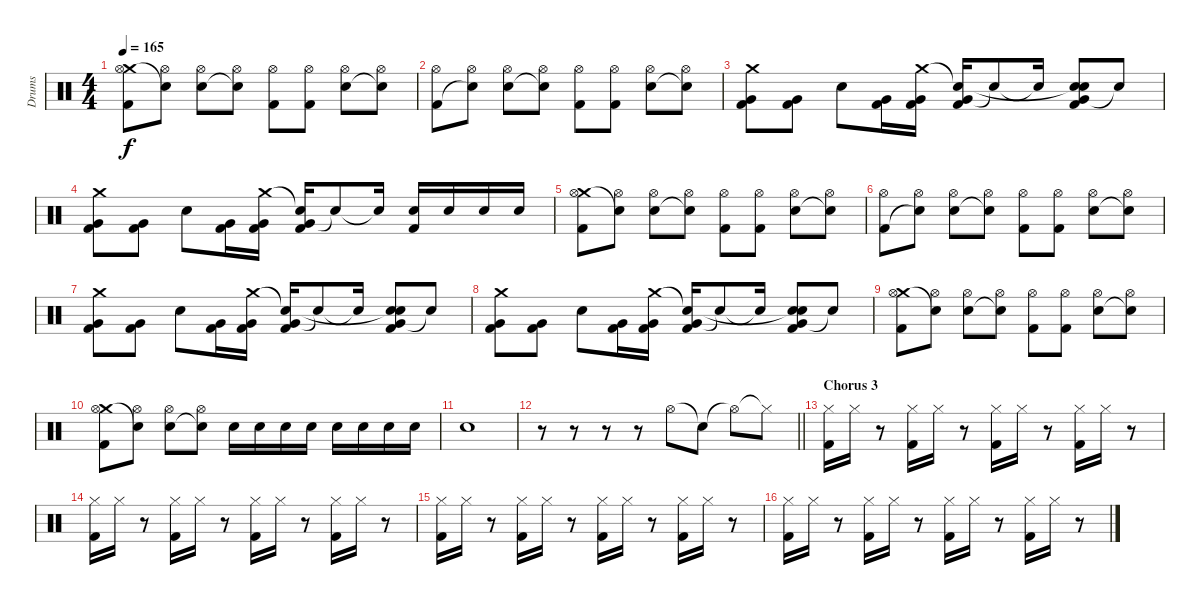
\track ("Drums" "Drums") {instrument percussion}
\staff {score}
\articulation defaults
\ts (4 4)
\tempo 165
\clef neutral
\ks c
("Crash medium (hit)" "Hi-Hat (open)" "Kick (hit) 2").8{dy f} ("Hi-Hat (open)" "Snare (hit)"{t}).8 ("Hi-Hat (open)" "Electric Snare (hit)").8 ("Hi-Hat (open)" "Snare (hit)"{t}).8 ("Hi-Hat (open)" "Kick (hit) 2").8 ("Hi-Hat (open)" "Kick (hit) 2").8 ("Hi-Hat (open)" "Electric Snare (hit)").8 ("Hi-Hat (open)" "Snare (hit)"{t}).8 |
("Hi-Hat (open)" "Kick (hit) 2").8 ("Hi-Hat (open)" "Snare (hit)"{t}).8 ("Hi-Hat (open)" "Electric Snare (hit)").8 ("Hi-Hat (open)" "Snare (hit)"{t}).8 ("Hi-Hat (open)" "Kick (hit) 2").8 ("Hi-Hat (open)" "Kick (hit) 2").8 ("Hi-Hat (open)" "Electric Snare (hit)").8 ("Hi-Hat (open)" "Snare (hit)"{t}).8 |
("Very Low Tom (hit)" "Crash medium (hit)" "Kick (hit) 2").8 ("Very Low Tom (hit)" "Kick (hit) 2").8 "Electric Snare (hit)".8 ("Very Low Tom (hit)" "Kick (hit) 2").16 ("Very Low Tom (hit)" "Crash medium (hit)" "Kick (hit) 2").16 ("Very Low Tom (hit)" "Snare (hit)"{t} "Kick (hit) 2").16 "Snare (hit)"{t}.8 "Snare (hit)"{t}.16 ("Very Low Tom (hit)" "Snare (hit)"{t} "Electric Snare (hit)" "Kick (hit) 2").8 "Snare (hit)"{t}.8 |
("Very Low Tom (hit)" "Crash medium (hit)" "Kick (hit) 2").8 ("Very Low Tom (hit)" "Kick (hit) 2").8 "Electric Snare (hit)".8 ("Very Low Tom (hit)" "Kick (hit) 2").16 ("Very Low Tom (hit)" "Crash medium (hit)" "Kick (hit) 2").16 ("Very Low Tom (hit)" "Snare (hit)"{t} "Kick (hit) 2").16 "Snare (hit)"{t}.8 "Snare (hit)"{t}.16 ("Electric Snare (hit)" "Kick (hit) 2").16 "Electric Snare (hit)".16 "Electric Snare (hit)".16 "Electric Snare (hit)".16 |
("Crash medium (hit)" "Hi-Hat (open)" "Kick (hit) 2").8 ("Hi-Hat (open)" "Snare (hit)"{t}).8 ("Hi-Hat (open)" "Electric Snare (hit)").8 ("Hi-Hat (open)" "Snare (hit)"{t}).8 ("Hi-Hat (open)" "Kick (hit) 2").8 ("Hi-Hat (open)" "Kick (hit) 2").8 ("Hi-Hat (open)" "Electric Snare (hit)").8 ("Hi-Hat (open)" "Snare (hit)"{t}).8 |
("Hi-Hat (open)" "Kick (hit) 2").8 ("Hi-Hat (open)" "Snare (hit)"{t}).8 ("Hi-Hat (open)" "Electric Snare (hit)").8 ("Hi-Hat (open)" "Snare (hit)"{t}).8 ("Hi-Hat (open)" "Kick (hit) 2").8 ("Hi-Hat (open)" "Kick (hit) 2").8 ("Hi-Hat (open)" "Electric Snare (hit)").8 ("Hi-Hat (open)" "Snare (hit)"{t}).8 |
("Very Low Tom (hit)" "Crash medium (hit)" "Kick (hit) 2").8 ("Very Low Tom (hit)" "Kick (hit) 2").8 "Electric Snare (hit)".8 ("Very Low Tom (hit)" "Kick (hit) 2").16 ("Very Low Tom (hit)" "Crash medium (hit)" "Kick (hit) 2").16 ("Very Low Tom (hit)" "Snare (hit)"{t} "Kick (hit) 2").16 "Snare (hit)"{t}.8 "Snare (hit)"{t}.16 ("Very Low Tom (hit)" "Snare (hit)"{t} "Electric Snare (hit)" "Kick (hit) 2").8 "Snare (hit)"{t}.8 |
("Very Low Tom (hit)" "Crash medium (hit)" "Kick (hit) 2").8 ("Very Low Tom (hit)" "Kick (hit) 2").8 "Electric Snare (hit)".8 ("Very Low Tom (hit)" "Kick (hit) 2").16 ("Very Low Tom (hit)" "Crash medium (hit)" "Kick (hit) 2").16 ("Very Low Tom (hit)" "Snare (hit)"{t} "Kick (hit) 2").16 "Snare (hit)"{t}.8 "Snare (hit)"{t}.16 ("Very Low Tom (hit)" "Snare (hit)"{t} "Electric Snare (hit)" "Kick (hit) 2").8 "Snare (hit)"{t}.8 |
("Crash medium (hit)" "Hi-Hat (open)" "Kick (hit) 2").8 ("Hi-Hat (open)" "Snare (hit)"{t}).8 ("Hi-Hat (open)" "Electric Snare (hit)").8 ("Hi-Hat (open)" "Snare (hit)"{t}).8 ("Hi-Hat (open)" "Kick (hit) 2").8 ("Hi-Hat (open)" "Kick (hit) 2").8 ("Hi-Hat (open)" "Electric Snare (hit)").8 ("Hi-Hat (open)" "Snare (hit)"{t}).8 |
("Crash medium (hit)" "Hi-Hat (open)" "Kick (hit) 2").8 ("Hi-Hat (open)" "Snare (hit)"{t}).8 ("Hi-Hat (open)" "Electric Snare (hit)").8 ("Hi-Hat (open)" "Snare (hit)"{t}).8 "Electric Snare (hit)".16 "Electric Snare (hit)".16 "Electric Snare (hit)".16 "Electric Snare (hit)".16 "Electric Snare (hit)".16 "Electric Snare (hit)".16 "Electric Snare (hit)".16 "Electric Snare (hit)".16 |
"Electric Snare (hit)".1 |
\barLineRight lightlight
r.8 r.8 r.8 r.8 "Hi-Hat (open)".8 "Snare (hit)"{t}.8 "Hi-Hat (open)"{t}.8 "Hi-Hat (closed)"{t}.8 |
\section ("" "Chorus 3")
("Hi-Hat (closed)" "Kick (hit) 2").16 "Hi-Hat (closed)".16 r.8 ("Hi-Hat (closed)" "Kick (hit) 2").16 "Hi-Hat (closed)".16 r.8 ("Hi-Hat (closed)" "Kick (hit) 2").16 "Hi-Hat (closed)".16 r.8 ("Hi-Hat (closed)" "Kick (hit) 2").16 "Hi-Hat (closed)".16 r.8 |
("Hi-Hat (closed)" "Kick (hit) 2").16 "Hi-Hat (closed)".16 r.8 ("Hi-Hat (closed)" "Kick (hit) 2").16 "Hi-Hat (closed)".16 r.8 ("Hi-Hat (closed)" "Kick (hit) 2").16 "Hi-Hat (closed)".16 r.8 ("Hi-Hat (closed)" "Kick (hit) 2").16 "Hi-Hat (closed)".16 r.8 |
("Hi-Hat (closed)" "Kick (hit) 2").16 "Hi-Hat (closed)".16 r.8 ("Hi-Hat (closed)" "Kick (hit) 2").16 "Hi-Hat (closed)".16 r.8 ("Hi-Hat (closed)" "Kick (hit) 2").16 "Hi-Hat (closed)".16 r.8 ("Hi-Hat (closed)" "Kick (hit) 2").16 "Hi-Hat (closed)".16 r.8 |
("Hi-Hat (closed)" "Kick (hit) 2").16 "Hi-Hat (closed)".16 r.8 ("Hi-Hat (closed)" "Kick (hit) 2").16 "Hi-Hat (closed)".16 r.8 ("Hi-Hat (closed)" "Kick (hit) 2").16 "Hi-Hat (closed)".16 r.8 ("Hi-Hat (closed)" "Kick (hit) 2").16 "Hi-Hat (closed)".16 r.8
